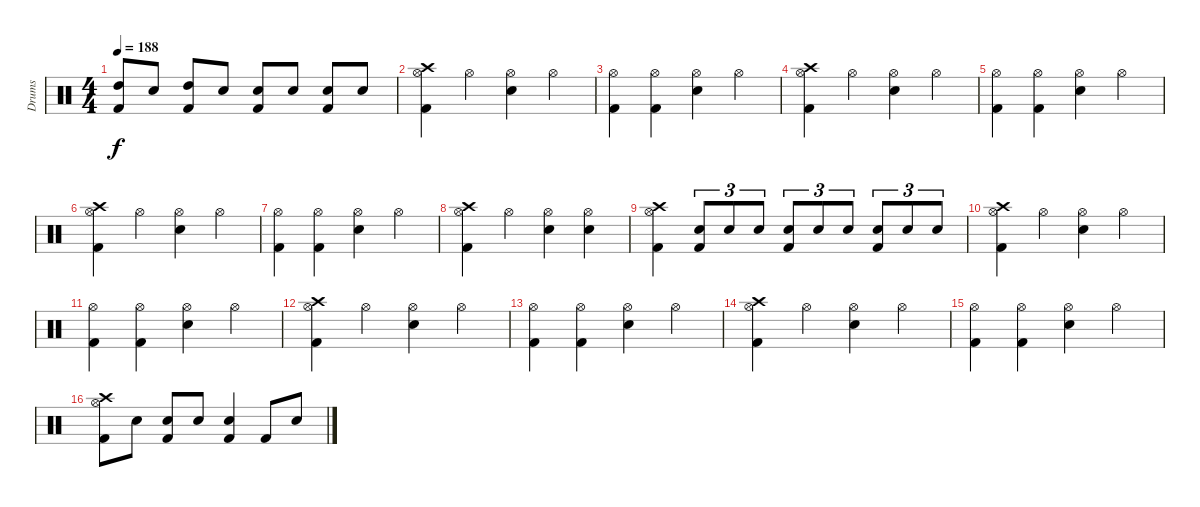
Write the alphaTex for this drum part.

\track ("Drums" "Drums") {instrument percussion}
\staff {score}
\articulation defaults
\ts (4 4)
\tempo 188
\clef neutral
\ks c
("High Tom (hit)" "Kick (hit) 2").8{dy f} "Electric Snare (hit)".8 ("High Tom (hit)" "Kick (hit) 2").8 "Electric Snare (hit)".8 ("Electric Snare (hit)" "Kick (hit) 2").8 "Electric Snare (hit)".8 ("Electric Snare (hit)" "Kick (hit) 2").8 "Electric Snare (hit)".8 |
("Crash high (hit)" "Hi-Hat (open)" "Kick (hit) 2").4 "Hi-Hat (open)".4 ("Hi-Hat (open)" "Electric Snare (hit)").4 "Hi-Hat (open)".4 |
("Hi-Hat (open)" "Kick (hit) 2").4 ("Hi-Hat (open)" "Kick (hit) 2").4 ("Hi-Hat (open)" "Electric Snare (hit)").4 "Hi-Hat (open)".4 |
("Crash high (hit)" "Hi-Hat (open)" "Kick (hit) 2").4 "Hi-Hat (open)".4 ("Hi-Hat (open)" "Electric Snare (hit)").4 "Hi-Hat (open)".4 |
("Hi-Hat (open)" "Kick (hit) 2").4 ("Hi-Hat (open)" "Kick (hit) 2").4 ("Hi-Hat (open)" "Electric Snare (hit)").4 "Hi-Hat (open)".4 |
("Crash high (hit)" "Hi-Hat (open)" "Kick (hit) 2").4 "Hi-Hat (open)".4 ("Hi-Hat (open)" "Electric Snare (hit)").4 "Hi-Hat (open)".4 |
("Hi-Hat (open)" "Kick (hit) 2").4 ("Hi-Hat (open)" "Kick (hit) 2").4 ("Hi-Hat (open)" "Electric Snare (hit)").4 "Hi-Hat (open)".4 |
("Crash high (hit)" "Hi-Hat (open)" "Kick (hit) 2").4 "Hi-Hat (open)".4 ("Hi-Hat (open)" "Electric Snare (hit)").4 ("Hi-Hat (open)" "Electric Snare (hit)").4 |
("Crash high (hit)" "Hi-Hat (open)" "Kick (hit) 2").4 ("Electric Snare (hit)" "Kick (hit) 2").8{tu (3 2)} "Electric Snare (hit)".8{tu (3 2)} "Electric Snare (hit)".8{tu (3 2)} ("Electric Snare (hit)" "Kick (hit) 2").8{tu (3 2)} "Electric Snare (hit)".8{tu (3 2)} "Electric Snare (hit)".8{tu (3 2)} ("Electric Snare (hit)" "Kick (hit) 2").8{tu (3 2)} "Electric Snare (hit)".8{tu (3 2)} "Electric Snare (hit)".8{tu (3 2)} |
("Crash high (hit)" "Hi-Hat (open)" "Kick (hit) 2").4 "Hi-Hat (open)".4 ("Hi-Hat (open)" "Electric Snare (hit)").4 "Hi-Hat (open)".4 |
("Hi-Hat (open)" "Kick (hit) 2").4 ("Hi-Hat (open)" "Kick (hit) 2").4 ("Hi-Hat (open)" "Electric Snare (hit)").4 "Hi-Hat (open)".4 |
("Crash high (hit)" "Hi-Hat (open)" "Kick (hit) 2").4 "Hi-Hat (open)".4 ("Hi-Hat (open)" "Electric Snare (hit)").4 "Hi-Hat (open)".4 |
("Hi-Hat (open)" "Kick (hit) 2").4 ("Hi-Hat (open)" "Kick (hit) 2").4 ("Hi-Hat (open)" "Electric Snare (hit)").4 "Hi-Hat (open)".4 |
("Crash high (hit)" "Hi-Hat (open)" "Kick (hit) 2").4 "Hi-Hat (open)".4 ("Hi-Hat (open)" "Electric Snare (hit)").4 "Hi-Hat (open)".4 |
("Hi-Hat (open)" "Kick (hit) 2").4 ("Hi-Hat (open)" "Kick (hit) 2").4 ("Hi-Hat (open)" "Electric Snare (hit)").4 "Hi-Hat (open)".4 |
("Crash high (hit)" "Hi-Hat (open)" "Kick (hit) 2").8 "Electric Snare (hit)".8 ("Electric Snare (hit)" "Kick (hit) 2").8 "Electric Snare (hit)".8 ("Electric Snare (hit)" "Kick (hit) 2").4 "Kick (hit) 2".8 "Electric Snare (hit)".8
